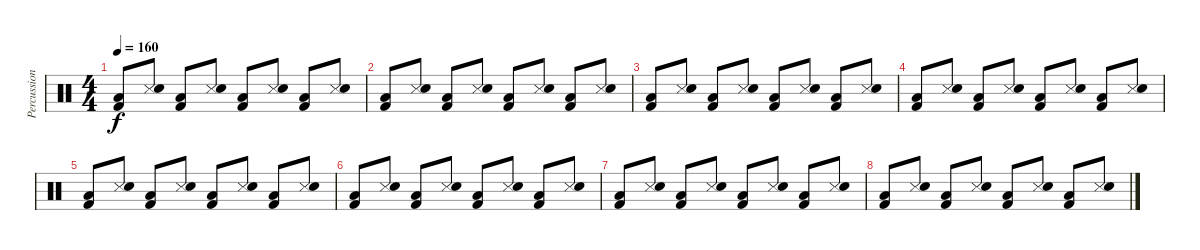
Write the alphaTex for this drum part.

\track ("Percussion" "Percussion") {instrument percussion}
\staff {score}
\articulation defaults
\ts (4 4)
\tempo 160
\clef neutral
\ks c
("Low Tom (hit)" "Kick (hit) 2").8{dy f} ("Snare (side stick) 3" "Electric Snare (hit)").8 ("Low Tom (hit)" "Kick (hit) 2").8 ("Snare (side stick) 3" "Electric Snare (hit)").8 ("Low Tom (hit)" "Kick (hit) 2").8 ("Snare (side stick) 3" "Electric Snare (hit)").8 ("Low Tom (hit)" "Kick (hit) 2").8 ("Snare (side stick) 3" "Electric Snare (hit)").8 |
("Low Tom (hit)" "Kick (hit) 2").8 ("Snare (side stick) 3" "Electric Snare (hit)").8 ("Low Tom (hit)" "Kick (hit) 2").8 ("Snare (side stick) 3" "Electric Snare (hit)").8 ("Low Tom (hit)" "Kick (hit) 2").8 ("Snare (side stick) 3" "Electric Snare (hit)").8 ("Low Tom (hit)" "Kick (hit) 2").8 ("Snare (side stick) 3" "Electric Snare (hit)").8 |
("Low Tom (hit)" "Kick (hit) 2").8 ("Snare (side stick) 3" "Electric Snare (hit)").8 ("Low Tom (hit)" "Kick (hit) 2").8 ("Snare (side stick) 3" "Electric Snare (hit)").8 ("Low Tom (hit)" "Kick (hit) 2").8 ("Snare (side stick) 3" "Electric Snare (hit)").8 ("Low Tom (hit)" "Kick (hit) 2").8 ("Snare (side stick) 3" "Electric Snare (hit)").8 |
("Low Tom (hit)" "Kick (hit) 2").8 ("Snare (side stick) 3" "Electric Snare (hit)").8 ("Low Tom (hit)" "Kick (hit) 2").8 ("Snare (side stick) 3" "Electric Snare (hit)").8 ("Low Tom (hit)" "Kick (hit) 2").8 ("Snare (side stick) 3" "Electric Snare (hit)").8 ("Low Tom (hit)" "Kick (hit) 2").8 ("Snare (side stick) 3" "Electric Snare (hit)").8 |
("Low Tom (hit)" "Kick (hit) 2").8 ("Snare (side stick) 3" "Electric Snare (hit)").8 ("Low Tom (hit)" "Kick (hit) 2").8 ("Snare (side stick) 3" "Electric Snare (hit)").8 ("Low Tom (hit)" "Kick (hit) 2").8 ("Snare (side stick) 3" "Electric Snare (hit)").8 ("Low Tom (hit)" "Kick (hit) 2").8 ("Snare (side stick) 3" "Electric Snare (hit)").8 |
("Low Tom (hit)" "Kick (hit) 2").8 ("Snare (side stick) 3" "Electric Snare (hit)").8 ("Low Tom (hit)" "Kick (hit) 2").8 ("Snare (side stick) 3" "Electric Snare (hit)").8 ("Low Tom (hit)" "Kick (hit) 2").8 ("Snare (side stick) 3" "Electric Snare (hit)").8 ("Low Tom (hit)" "Kick (hit) 2").8 ("Snare (side stick) 3" "Electric Snare (hit)").8 |
("Low Tom (hit)" "Kick (hit) 2").8 ("Snare (side stick) 3" "Electric Snare (hit)").8 ("Low Tom (hit)" "Kick (hit) 2").8 ("Snare (side stick) 3" "Electric Snare (hit)").8 ("Low Tom (hit)" "Kick (hit) 2").8 ("Snare (side stick) 3" "Electric Snare (hit)").8 ("Low Tom (hit)" "Kick (hit) 2").8 ("Snare (side stick) 3" "Electric Snare (hit)").8 |
("Low Tom (hit)" "Kick (hit) 2").8 ("Snare (side stick) 3" "Electric Snare (hit)").8 ("Low Tom (hit)" "Kick (hit) 2").8 ("Snare (side stick) 3" "Electric Snare (hit)").8 ("Low Tom (hit)" "Kick (hit) 2").8 ("Snare (side stick) 3" "Electric Snare (hit)").8 ("Low Tom (hit)" "Kick (hit) 2").8 ("Snare (side stick) 3" "Electric Snare (hit)").8
